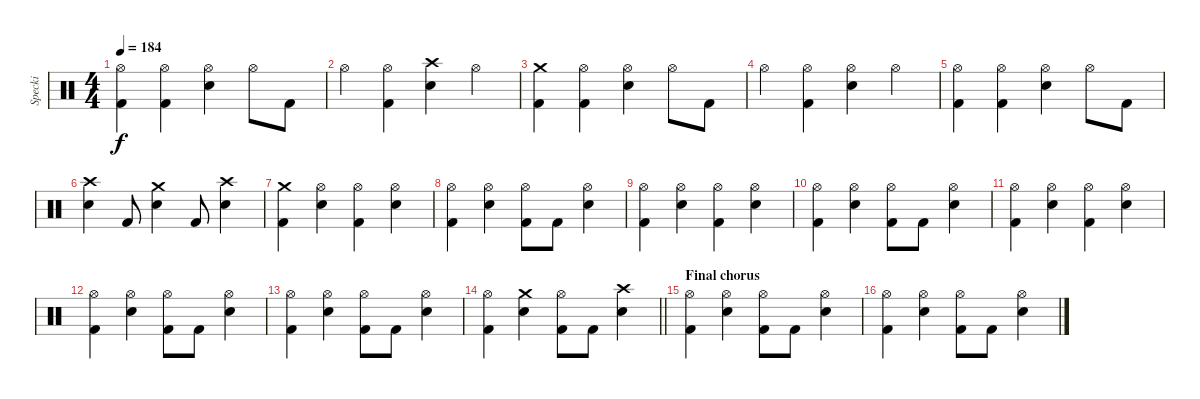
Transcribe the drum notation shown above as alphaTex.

\track ("Specki" "Specki") {instrument percussion}
\staff {score}
\articulation defaults
\ts (4 4)
\tempo 184
\clef neutral
\ks c
("Hi-Hat (open)" "Kick (hit) 2").4{dy f} ("Hi-Hat (open)" "Kick (hit) 2").4 ("Hi-Hat (open)" "Electric Snare (hit)").4 "Hi-Hat (open)".8 "Kick (hit) 2".8 |
"Hi-Hat (open)".4 ("Hi-Hat (open)" "Kick (hit) 2").4 ("Crash high (hit)" "Electric Snare (hit)").4 "Hi-Hat (open)".4 |
("Crash medium (hit)" "Kick (hit) 2").4 ("Hi-Hat (open)" "Kick (hit) 2").4 ("Hi-Hat (open)" "Electric Snare (hit)").4 "Hi-Hat (open)".8 "Kick (hit) 2".8 |
"Hi-Hat (open)".4 ("Hi-Hat (open)" "Kick (hit) 2").4 ("Hi-Hat (open)" "Electric Snare (hit)").4 "Hi-Hat (open)".4 |
("Hi-Hat (open)" "Kick (hit) 2").4 ("Hi-Hat (open)" "Kick (hit) 2").4 ("Hi-Hat (open)" "Electric Snare (hit)").4 "Hi-Hat (open)".8 "Kick (hit) 2".8 |
("Crash high (hit)" "Electric Snare (hit)").4 "Kick (hit) 2".8 ("Crash medium (hit)" "Electric Snare (hit)").4 "Kick (hit) 2".8 ("Crash high (hit)" "Electric Snare (hit)").4 |
("Crash medium (hit)" "Kick (hit) 2").4 ("Hi-Hat (open)" "Electric Snare (hit)").4 ("Hi-Hat (open)" "Kick (hit) 2").4 ("Hi-Hat (open)" "Electric Snare (hit)").4 |
("Hi-Hat (open)" "Kick (hit) 2").4 ("Hi-Hat (open)" "Electric Snare (hit)").4 ("Hi-Hat (open)" "Kick (hit) 2").8 "Kick (hit) 2".8 ("Hi-Hat (open)" "Electric Snare (hit)").4 |
("Hi-Hat (open)" "Kick (hit) 2").4 ("Hi-Hat (open)" "Electric Snare (hit)").4 ("Hi-Hat (open)" "Kick (hit) 2").4 ("Hi-Hat (open)" "Electric Snare (hit)").4 |
("Hi-Hat (open)" "Kick (hit) 2").4 ("Hi-Hat (open)" "Electric Snare (hit)").4 ("Hi-Hat (open)" "Kick (hit) 2").8 "Kick (hit) 2".8 ("Hi-Hat (open)" "Electric Snare (hit)").4 |
("Hi-Hat (open)" "Kick (hit) 2").4 ("Hi-Hat (open)" "Electric Snare (hit)").4 ("Hi-Hat (open)" "Kick (hit) 2").4 ("Hi-Hat (open)" "Electric Snare (hit)").4 |
("Hi-Hat (open)" "Kick (hit) 2").4 ("Hi-Hat (open)" "Electric Snare (hit)").4 ("Hi-Hat (open)" "Kick (hit) 2").8 "Kick (hit) 2".8 ("Hi-Hat (open)" "Electric Snare (hit)").4 |
("Hi-Hat (open)" "Kick (hit) 2").4 ("Hi-Hat (open)" "Electric Snare (hit)").4 ("Hi-Hat (open)" "Kick (hit) 2").8 "Kick (hit) 2".8 ("Hi-Hat (open)" "Electric Snare (hit)").4 |
\barLineRight lightlight
("Hi-Hat (open)" "Kick (hit) 2").4 ("Crash medium (hit)" "Electric Snare (hit)").4 ("Hi-Hat (open)" "Kick (hit) 2").8 "Kick (hit) 2".8 ("Crash high (hit)" "Electric Snare (hit)").4 |
\section ("" "Final chorus")
("Hi-Hat (open)" "Kick (hit) 2").4 ("Hi-Hat (open)" "Electric Snare (hit)").4 ("Hi-Hat (open)" "Kick (hit) 2").8 "Kick (hit) 2".8 ("Hi-Hat (open)" "Electric Snare (hit)").4 |
("Hi-Hat (open)" "Kick (hit) 2").4 ("Hi-Hat (open)" "Electric Snare (hit)").4 ("Hi-Hat (open)" "Kick (hit) 2").8 "Kick (hit) 2".8 ("Hi-Hat (open)" "Electric Snare (hit)").4
